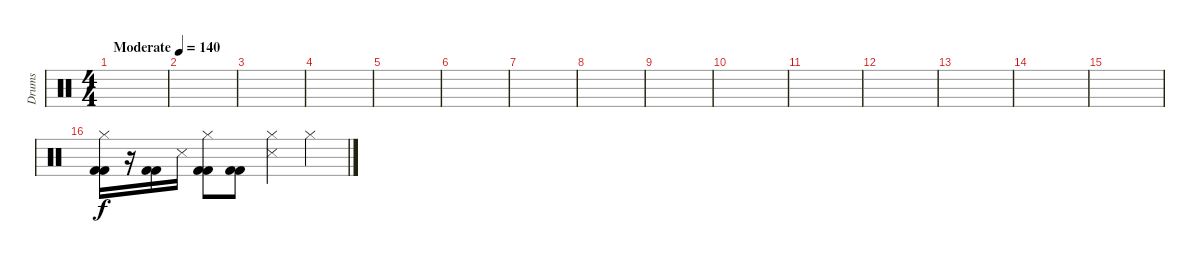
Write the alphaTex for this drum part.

\track ("Drums" "Drums") {instrument percussion}
\staff {score}
\articulation defaults
\ts (4 4)
\tempo (140 "Moderate")
\clef neutral
\ks c
|
|
|
|
|
|
|
|
|
|
|
|
|
|
|
("Kick (hit) 2" "Hi-Hat (closed)" "Kick (hit) 2").16 r.16 ("Kick (hit) 2" "Kick (hit) 2").16 "Snare (side stick) 3".16 ("Kick (hit) 2" "Hi-Hat (closed)" "Kick (hit) 2").8 ("Kick (hit) 2" "Kick (hit) 2").8 ("Snare (side stick) 3" "Hi-Hat (closed)").4 "Hi-Hat (closed)".4
